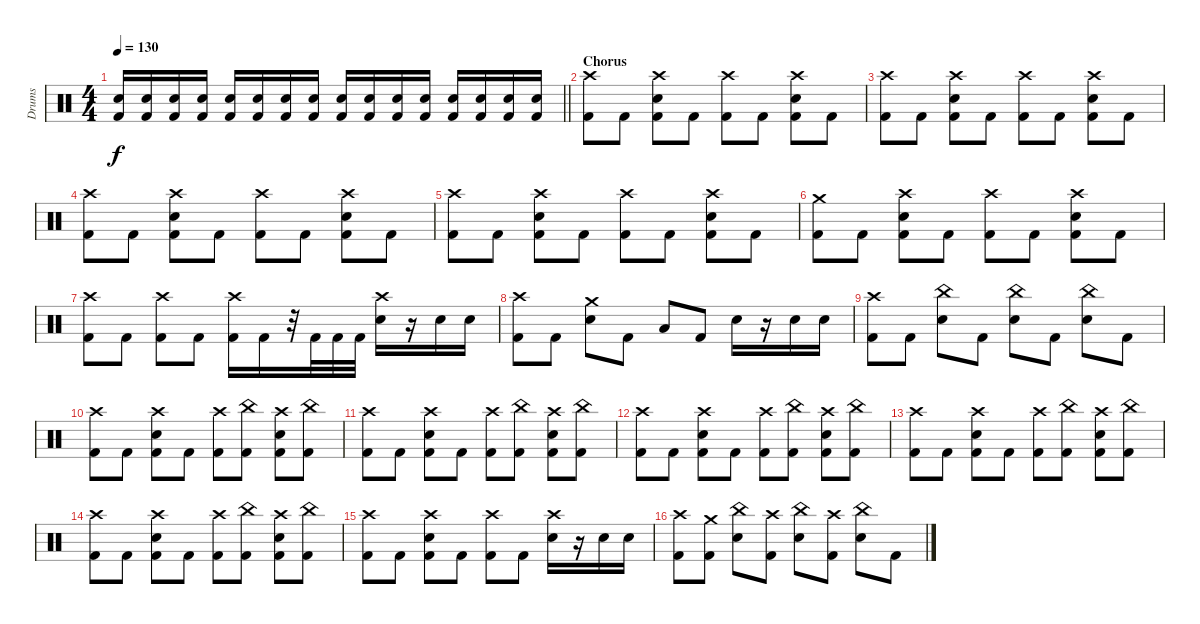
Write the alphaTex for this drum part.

\track ("Drums" "Drums") {instrument percussion}
\staff {score}
\articulation defaults
\ts (4 4)
\tempo 130
\clef neutral
\barLineRight lightlight
\ks c
("Snare (hit) 2" "Kick (hit) 2").16{dy f} ("Snare (hit) 2" "Kick (hit) 2").16 ("Snare (hit) 2" "Kick (hit) 2").16 ("Snare (hit) 2" "Kick (hit) 2").16 ("Snare (hit) 2" "Kick (hit) 2").16 ("Snare (hit) 2" "Kick (hit) 2").16 ("Snare (hit) 2" "Kick (hit) 2").16 ("Snare (hit) 2" "Kick (hit) 2").16 ("Snare (hit) 2" "Kick (hit) 2").16 ("Snare (hit) 2" "Kick (hit) 2").16 ("Snare (hit) 2" "Kick (hit) 2").16 ("Snare (hit) 2" "Kick (hit) 2").16 ("Snare (hit) 2" "Kick (hit) 2").16 ("Snare (hit) 2" "Kick (hit) 2").16 ("Snare (hit) 2" "Kick (hit) 2").16 ("Snare (hit) 2" "Kick (hit) 2").16 |
\section ("" "Chorus")
("Crash high (hit)" "Kick (hit) 2").8 "Kick (hit) 2".8 ("Crash high (hit)" "Snare (hit) 2" "Kick (hit) 2").8 "Kick (hit) 2".8 ("Crash high (hit)" "Kick (hit) 2").8 "Kick (hit) 2".8 ("Crash high (hit)" "Snare (hit) 2" "Kick (hit) 2").8 "Kick (hit) 2".8 |
("Crash high (hit)" "Kick (hit) 2").8 "Kick (hit) 2".8 ("Crash high (hit)" "Snare (hit) 2" "Kick (hit) 2").8 "Kick (hit) 2".8 ("Crash high (hit)" "Kick (hit) 2").8 "Kick (hit) 2".8 ("Crash high (hit)" "Snare (hit) 2" "Kick (hit) 2").8 "Kick (hit) 2".8 |
("Crash high (hit)" "Kick (hit) 2").8 "Kick (hit) 2".8 ("Crash high (hit)" "Snare (hit) 2" "Kick (hit) 2").8 "Kick (hit) 2".8 ("Crash high (hit)" "Kick (hit) 2").8 "Kick (hit) 2".8 ("Crash high (hit)" "Snare (hit) 2" "Kick (hit) 2").8 "Kick (hit) 2".8 |
("Crash high (hit)" "Kick (hit) 2").8 "Kick (hit) 2".8 ("Crash high (hit)" "Snare (hit) 2" "Kick (hit) 2").8 "Kick (hit) 2".8 ("Crash high (hit)" "Kick (hit) 2").8 "Kick (hit) 2".8 ("Crash high (hit)" "Snare (hit) 2" "Kick (hit) 2").8 "Kick (hit) 2".8 |
("Crash medium (hit)" "Kick (hit) 2").8 "Kick (hit) 2".8 ("Crash high (hit)" "Snare (hit) 2" "Kick (hit) 2").8 "Kick (hit) 2".8 ("Crash high (hit)" "Kick (hit) 2").8 "Kick (hit) 2".8 ("Crash high (hit)" "Snare (hit) 2" "Kick (hit) 2").8 "Kick (hit) 2".8 |
("Crash high (hit)" "Kick (hit) 2").8 "Kick (hit) 2".8 ("Crash high (hit)" "Kick (hit) 2").8 "Kick (hit) 2".8 ("Crash high (hit)" "Kick (hit) 2").16 "Kick (hit) 2".16 r.32 "Kick (hit) 2".32 "Kick (hit) 2".32 "Kick (hit) 2".32 ("Crash high (hit)" "Snare (hit) 2").16 r.16 "Snare (hit) 2".16 "Snare (hit) 2".16 |
("Crash high (hit)" "Kick (hit) 2").8 "Kick (hit) 2".8 ("Crash medium (hit)" "Snare (hit) 2").8 "Kick (hit) 2".8 "Low Floor Tom (hit)".8 "Kick (hit) 2".8 "Snare (hit) 2".16 r.16 "Snare (hit) 2".16 "Snare (hit) 2".16 |
("Crash high (hit)" "Kick (hit) 2").8 "Kick (hit) 2".8 ("China (hit)" "Snare (hit) 2").8 "Kick (hit) 2".8 ("China (hit)" "Snare (hit) 2").8 "Kick (hit) 2".8 ("China (hit)" "Snare (hit) 2").8 "Kick (hit) 2".8 |
("Crash high (hit)" "Kick (hit) 2").8 "Kick (hit) 2".8 ("Crash high (hit)" "Snare (hit) 2" "Kick (hit) 2").8 "Kick (hit) 2".8 ("Crash high (hit)" "Kick (hit) 2").8 ("China (hit)" "Kick (hit) 2").8 ("Crash high (hit)" "Snare (hit) 2" "Kick (hit) 2").8 ("China (hit)" "Kick (hit) 2").8 |
("Crash high (hit)" "Kick (hit) 2").8 "Kick (hit) 2".8 ("Crash high (hit)" "Snare (hit) 2" "Kick (hit) 2").8 "Kick (hit) 2".8 ("Crash high (hit)" "Kick (hit) 2").8 ("China (hit)" "Kick (hit) 2").8 ("Crash high (hit)" "Snare (hit) 2" "Kick (hit) 2").8 ("China (hit)" "Kick (hit) 2").8 |
("Crash high (hit)" "Kick (hit) 2").8 "Kick (hit) 2".8 ("Crash high (hit)" "Snare (hit) 2" "Kick (hit) 2").8 "Kick (hit) 2".8 ("Crash high (hit)" "Kick (hit) 2").8 ("China (hit)" "Kick (hit) 2").8 ("Crash high (hit)" "Snare (hit) 2" "Kick (hit) 2").8 ("China (hit)" "Kick (hit) 2").8 |
("Crash high (hit)" "Kick (hit) 2").8 "Kick (hit) 2".8 ("Crash high (hit)" "Snare (hit) 2" "Kick (hit) 2").8 "Kick (hit) 2".8 ("Crash high (hit)" "Kick (hit) 2").8 ("China (hit)" "Kick (hit) 2").8 ("Crash high (hit)" "Snare (hit) 2" "Kick (hit) 2").8 ("China (hit)" "Kick (hit) 2").8 |
("Crash high (hit)" "Kick (hit) 2").8 "Kick (hit) 2".8 ("Crash high (hit)" "Snare (hit) 2" "Kick (hit) 2").8 "Kick (hit) 2".8 ("Crash high (hit)" "Kick (hit) 2").8 ("China (hit)" "Kick (hit) 2").8 ("Crash high (hit)" "Snare (hit) 2" "Kick (hit) 2").8 ("China (hit)" "Kick (hit) 2").8 |
("Crash high (hit)" "Kick (hit) 2").8 "Kick (hit) 2".8 ("Crash high (hit)" "Snare (hit) 2" "Kick (hit) 2").8 "Kick (hit) 2".8 ("Crash high (hit)" "Kick (hit) 2").8 "Kick (hit) 2".8 ("Crash high (hit)" "Snare (hit) 2").16 r.16 "Snare (hit) 2".16 "Snare (hit) 2".16 |
("Crash high (hit)" "Kick (hit) 2").8 ("Crash medium (hit)" "Kick (hit) 2").8 ("China (hit)" "Snare (hit) 2").8 ("Crash high (hit)" "Kick (hit) 2").8 ("China (hit)" "Snare (hit) 2").8 ("Crash high (hit)" "Kick (hit) 2").8 ("China (hit)" "Snare (hit) 2").8 "Kick (hit) 2".8
